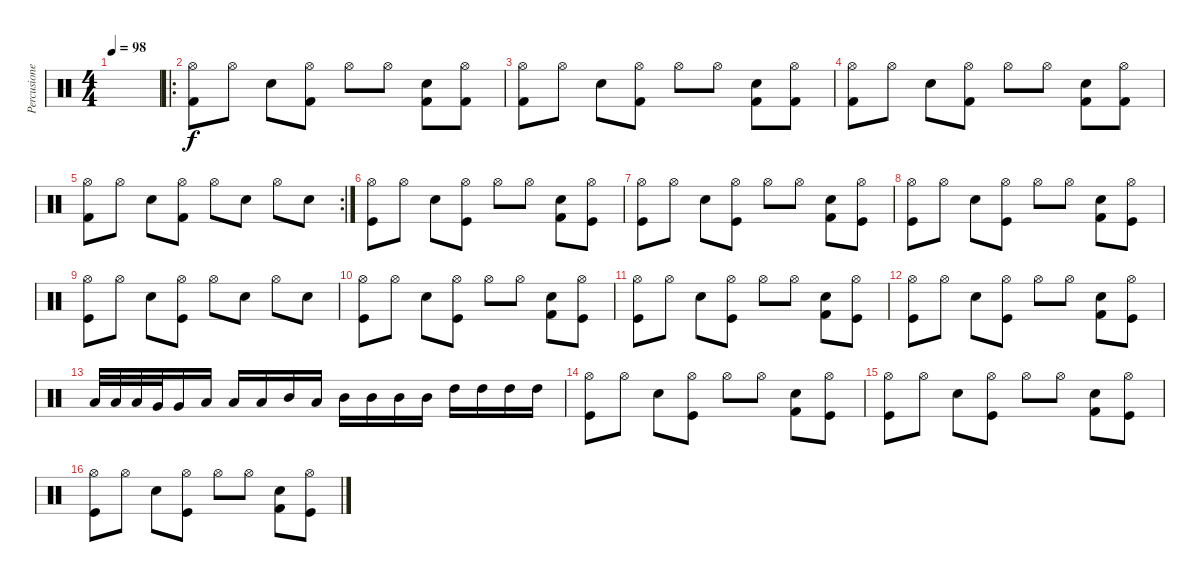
\track ("Percusiones" "Percusione") {instrument percussion}
\staff {score}
\articulation defaults
\ts (4 4)
\tempo 98
\clef neutral
\ks c
|
\ro
("Hi-Hat (open)" "Kick (hit) 2").8 "Hi-Hat (open)".8 "Electric Snare (hit)".8 ("Hi-Hat (open)" "Kick (hit) 2").8 "Hi-Hat (open)".8 "Hi-Hat (open)".8 ("Electric Snare (hit)" "Kick (hit) 2").8 ("Hi-Hat (open)" "Kick (hit) 2").8 |
("Hi-Hat (open)" "Kick (hit) 2").8 "Hi-Hat (open)".8 "Electric Snare (hit)".8 ("Hi-Hat (open)" "Kick (hit) 2").8 "Hi-Hat (open)".8 "Hi-Hat (open)".8 ("Electric Snare (hit)" "Kick (hit) 2").8 ("Hi-Hat (open)" "Kick (hit) 2").8 |
("Hi-Hat (open)" "Kick (hit) 2").8 "Hi-Hat (open)".8 "Electric Snare (hit)".8 ("Hi-Hat (open)" "Kick (hit) 2").8 "Hi-Hat (open)".8 "Hi-Hat (open)".8 ("Electric Snare (hit)" "Kick (hit) 2").8 ("Hi-Hat (open)" "Kick (hit) 2").8 |
\rc 2
("Hi-Hat (open)" "Kick (hit) 2").8 "Hi-Hat (open)".8 "Electric Snare (hit)".8 ("Hi-Hat (open)" "Kick (hit) 2").8 "Hi-Hat (open)".8 "Electric Snare (hit)".8 "Hi-Hat (open)".8 "Electric Snare (hit)".8 |
("Hi-Hat (open)" "Kick (hit)").8 "Hi-Hat (open)".8 "Electric Snare (hit)".8 ("Hi-Hat (open)" "Kick (hit)").8 "Hi-Hat (open)".8 "Hi-Hat (open)".8 ("Electric Snare (hit)" "Kick (hit) 2").8 ("Hi-Hat (open)" "Kick (hit)").8 |
("Hi-Hat (open)" "Kick (hit)").8 "Hi-Hat (open)".8 "Electric Snare (hit)".8 ("Hi-Hat (open)" "Kick (hit)").8 "Hi-Hat (open)".8 "Hi-Hat (open)".8 ("Electric Snare (hit)" "Kick (hit) 2").8 ("Hi-Hat (open)" "Kick (hit)").8 |
("Hi-Hat (open)" "Kick (hit)").8 "Hi-Hat (open)".8 "Electric Snare (hit)".8 ("Hi-Hat (open)" "Kick (hit)").8 "Hi-Hat (open)".8 "Hi-Hat (open)".8 ("Electric Snare (hit)" "Kick (hit) 2").8 ("Hi-Hat (open)" "Kick (hit)").8 |
("Hi-Hat (open)" "Kick (hit)").8 "Hi-Hat (open)".8 "Electric Snare (hit)".8 ("Hi-Hat (open)" "Kick (hit)").8 "Hi-Hat (open)".8 "Electric Snare (hit)".8 "Hi-Hat (open)".8 "Electric Snare (hit)".8 |
("Hi-Hat (open)" "Kick (hit)").8 "Hi-Hat (open)".8 "Electric Snare (hit)".8 ("Hi-Hat (open)" "Kick (hit)").8 "Hi-Hat (open)".8 "Hi-Hat (open)".8 ("Electric Snare (hit)" "Kick (hit) 2").8 ("Hi-Hat (open)" "Kick (hit)").8 |
("Hi-Hat (open)" "Kick (hit)").8 "Hi-Hat (open)".8 "Electric Snare (hit)".8 ("Hi-Hat (open)" "Kick (hit)").8 "Hi-Hat (open)".8 "Hi-Hat (open)".8 ("Electric Snare (hit)" "Kick (hit) 2").8 ("Hi-Hat (open)" "Kick (hit)").8 |
("Hi-Hat (open)" "Kick (hit)").8 "Hi-Hat (open)".8 "Electric Snare (hit)".8 ("Hi-Hat (open)" "Kick (hit)").8 "Hi-Hat (open)".8 "Hi-Hat (open)".8 ("Electric Snare (hit)" "Kick (hit) 2").8 ("Hi-Hat (open)" "Kick (hit)").8 |
"Low Floor Tom (hit)".32 "Low Floor Tom (hit)".32 "Low Floor Tom (hit)".32 "Very Low Tom (hit)".32 "Very Low Tom (hit)".16 "Low Tom (hit)".16 "Low Tom (hit)".16 "Low Tom (hit)".16 "Mid Tom (hit)".16 "Low Tom (hit)".16 "Mid Tom (hit)".16 "Mid Tom (hit)".16 "Mid Tom (hit)".16 "Mid Tom (hit)".16 "High Tom (hit)".16 "High Tom (hit)".16 "High Tom (hit)".16 "High Tom (hit)".16 |
("Hi-Hat (open)" "Kick (hit)").8 "Hi-Hat (open)".8 "Electric Snare (hit)".8 ("Hi-Hat (open)" "Kick (hit)").8 "Hi-Hat (open)".8 "Hi-Hat (open)".8 ("Electric Snare (hit)" "Kick (hit) 2").8 ("Hi-Hat (open)" "Kick (hit)").8 |
("Hi-Hat (open)" "Kick (hit)").8 "Hi-Hat (open)".8 "Electric Snare (hit)".8 ("Hi-Hat (open)" "Kick (hit)").8 "Hi-Hat (open)".8 "Hi-Hat (open)".8 ("Electric Snare (hit)" "Kick (hit) 2").8 ("Hi-Hat (open)" "Kick (hit)").8 |
("Hi-Hat (open)" "Kick (hit)").8 "Hi-Hat (open)".8 "Electric Snare (hit)".8 ("Hi-Hat (open)" "Kick (hit)").8 "Hi-Hat (open)".8 "Hi-Hat (open)".8 ("Electric Snare (hit)" "Kick (hit) 2").8 ("Hi-Hat (open)" "Kick (hit)").8
